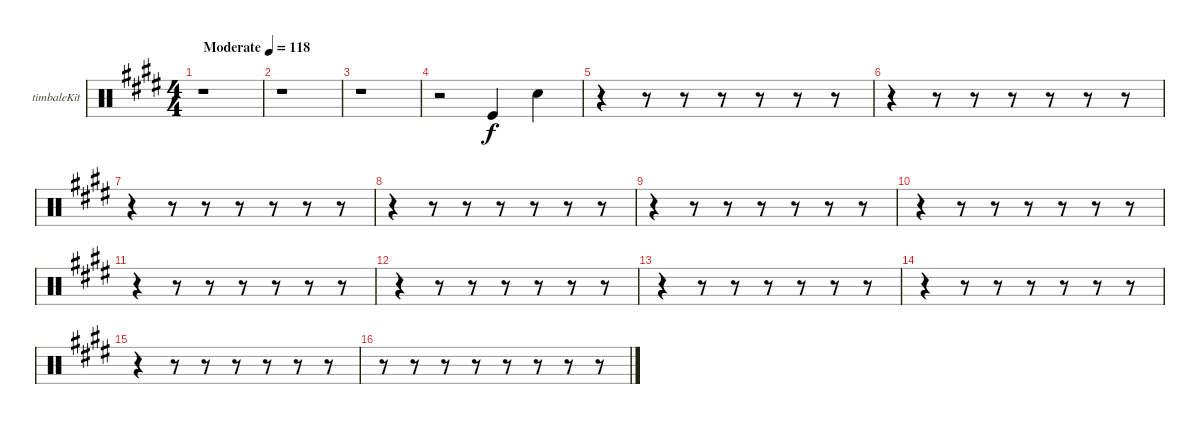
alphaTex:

\bracketExtendMode groupsimilarinstruments
\firstSystemTrackNameOrientation horizontal
\otherSystemsTrackNameOrientation horizontal
\track ("Timbale" "timbaleKit") {instrument percussion}
\staff {score}
\articulation defaults
\ts (4 4)
\beaming (8 2 2 2 2)
\tempo (118 "Moderate")
\clef neutral
\ks e
r.1{dy f} |
r.1 |
r.1 |
r.2 "Kick (hit)".4 "Snare (hit) 2".4 |
r.4 r.8 r.8 r.8 r.8 r.8 r.8 |
r.4 r.8 r.8 r.8 r.8 r.8 r.8 |
r.4 r.8 r.8 r.8 r.8 r.8 r.8 |
r.4 r.8 r.8 r.8 r.8 r.8 r.8 |
r.4 r.8 r.8 r.8 r.8 r.8 r.8 |
r.4 r.8 r.8 r.8 r.8 r.8 r.8 |
r.4 r.8 r.8 r.8 r.8 r.8 r.8 |
r.4 r.8 r.8 r.8 r.8 r.8 r.8 |
r.4 r.8 r.8 r.8 r.8 r.8 r.8 |
r.4 r.8 r.8 r.8 r.8 r.8 r.8 |
r.4 r.8 r.8 r.8 r.8 r.8 r.8 |
r.8 r.8 r.8 r.8 r.8 r.8 r.8 r.8
